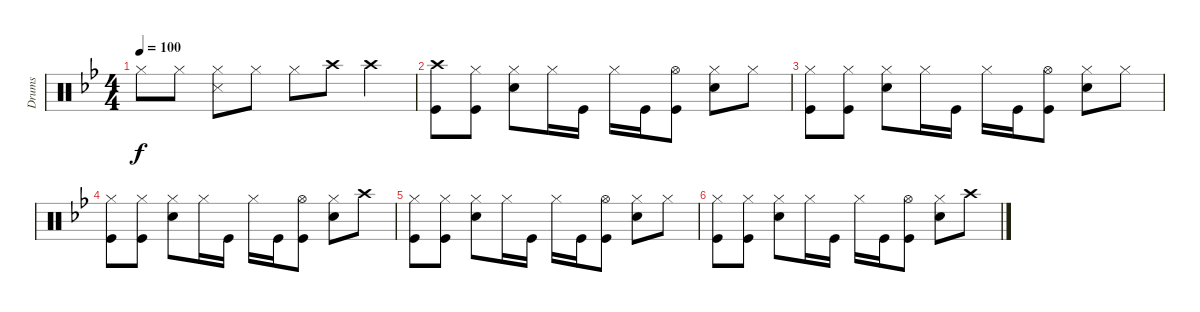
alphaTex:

\track ("Drums" "Drums") {instrument percussion}
\staff {score}
\articulation defaults
\ts (4 4)
\tempo 100
\clef neutral
\ks bb "Hi-Hat (closed)".8{dy f} "Hi-Hat (closed)".8
("Hi-Hat (closed)" "Snare (side stick) 3").8 "Hi-Hat (closed)".8 "Hi-Hat (closed)".8 "Crash high (hit)".8 "Crash high (hit)".4 |
("Crash high (hit)" "Kick (hit)").8 ("Hi-Hat (closed)" "Kick (hit)").8 ("Hi-Hat (closed)" "Snare (hit) 2").8 "Hi-Hat (closed)".16 "Kick (hit)".16 "Hi-Hat (closed)".16 "Kick (hit)".16 ("Hi-Hat (open)" "Kick (hit)").8 ("Hi-Hat (closed)" "Snare (hit) 2").8 "Hi-Hat (closed)".8 |
("Hi-Hat (closed)" "Kick (hit)").8 ("Hi-Hat (closed)" "Kick (hit)").8 ("Hi-Hat (closed)" "Snare (hit) 2").8 "Hi-Hat (closed)".16 "Kick (hit)".16 "Hi-Hat (closed)".16 "Kick (hit)".16 ("Hi-Hat (open)" "Kick (hit)").8 ("Hi-Hat (closed)" "Snare (hit) 2").8 "Hi-Hat (closed)".8 |
("Hi-Hat (closed)" "Kick (hit)").8 ("Hi-Hat (closed)" "Kick (hit)").8 ("Hi-Hat (closed)" "Snare (hit) 2").8 "Hi-Hat (closed)".16 "Kick (hit)".16 "Hi-Hat (closed)".16 "Kick (hit)".16 ("Hi-Hat (open)" "Kick (hit)").8 ("Hi-Hat (closed)" "Snare (hit) 2").8 "Crash high (hit)".8 |
("Hi-Hat (closed)" "Kick (hit)").8 ("Hi-Hat (closed)" "Kick (hit)").8 ("Hi-Hat (closed)" "Snare (hit) 2").8 "Hi-Hat (closed)".16 "Kick (hit)".16 "Hi-Hat (closed)".16 "Kick (hit)".16 ("Hi-Hat (open)" "Kick (hit)").8 ("Hi-Hat (closed)" "Snare (hit) 2").8 "Hi-Hat (closed)".8 |
("Hi-Hat (closed)" "Kick (hit)").8 ("Hi-Hat (closed)" "Kick (hit)").8 ("Hi-Hat (closed)" "Snare (hit) 2").8 "Hi-Hat (closed)".16 "Kick (hit)".16 "Hi-Hat (closed)".16 "Kick (hit)".16 ("Hi-Hat (open)" "Kick (hit)").8 ("Hi-Hat (closed)" "Snare (hit) 2").8 "Crash high (hit)".8
